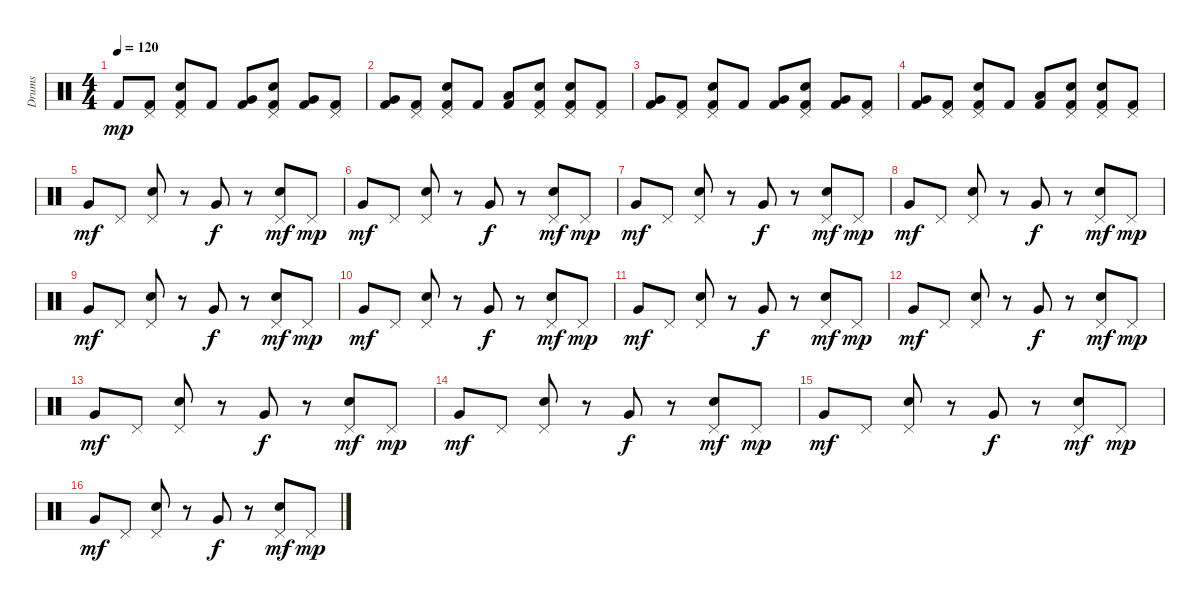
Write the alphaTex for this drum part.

\track ("Drums" "Drums") {instrument percussion}
\staff {score}
\articulation defaults
\ts (4 4)
\tempo 120
\clef neutral
\ks c "Kick (hit) 2".8{dy mp volume 13}
("Pedal Hi-Hat (hit)" "Kick (hit) 2").8 ("Pedal Hi-Hat (hit)" "Electric Snare (hit)" "Kick (hit) 2").8 "Kick (hit) 2".8 ("Very Low Tom (hit)" "Kick (hit) 2").8 ("Pedal Hi-Hat (hit)" "Electric Snare (hit)" "Kick (hit) 2").8 ("Very Low Tom (hit)" "Kick (hit) 2").8 ("Pedal Hi-Hat (hit)" "Kick (hit) 2").8 |
("Very Low Tom (hit)" "Kick (hit) 2").8 ("Pedal Hi-Hat (hit)" "Kick (hit) 2").8 ("Pedal Hi-Hat (hit)" "Electric Snare (hit)" "Kick (hit) 2").8 "Kick (hit) 2".8 ("Low Tom (hit)" "Kick (hit) 2").8 ("Pedal Hi-Hat (hit)" "Electric Snare (hit)" "Kick (hit) 2").8 ("Pedal Hi-Hat (hit)" "Electric Snare (hit)" "Kick (hit) 2").8 ("Pedal Hi-Hat (hit)" "Kick (hit) 2").8 |
("Very Low Tom (hit)" "Kick (hit) 2").8 ("Pedal Hi-Hat (hit)" "Kick (hit) 2").8 ("Pedal Hi-Hat (hit)" "Electric Snare (hit)" "Kick (hit) 2").8 "Kick (hit) 2".8 ("Very Low Tom (hit)" "Kick (hit) 2").8 ("Pedal Hi-Hat (hit)" "Electric Snare (hit)" "Kick (hit) 2").8 ("Very Low Tom (hit)" "Kick (hit) 2").8 ("Pedal Hi-Hat (hit)" "Kick (hit) 2").8 |
("Very Low Tom (hit)" "Kick (hit) 2").8 ("Pedal Hi-Hat (hit)" "Kick (hit) 2").8 ("Pedal Hi-Hat (hit)" "Electric Snare (hit)" "Kick (hit) 2").8 "Kick (hit) 2".8 ("Low Tom (hit)" "Kick (hit) 2").8 ("Pedal Hi-Hat (hit)" "Electric Snare (hit)" "Kick (hit) 2").8 ("Pedal Hi-Hat (hit)" "Electric Snare (hit)" "Kick (hit) 2").8 ("Pedal Hi-Hat (hit)" "Kick (hit) 2").8 |
"Very Low Tom (hit)".8{dy mf} "Pedal Hi-Hat (hit)".8 ("Pedal Hi-Hat (hit)" "Electric Snare (hit)").8 r.8 "Very Low Tom (hit)".8{dy f} r.8 ("Pedal Hi-Hat (hit)" "Electric Snare (hit)").8{dy mf} "Pedal Hi-Hat (hit)".8{dy mp} |
"Very Low Tom (hit)".8{dy mf} "Pedal Hi-Hat (hit)".8 ("Pedal Hi-Hat (hit)" "Electric Snare (hit)").8 r.8 "Very Low Tom (hit)".8{dy f} r.8 ("Pedal Hi-Hat (hit)" "Electric Snare (hit)").8{dy mf} "Pedal Hi-Hat (hit)".8{dy mp} |
"Very Low Tom (hit)".8{dy mf} "Pedal Hi-Hat (hit)".8 ("Pedal Hi-Hat (hit)" "Electric Snare (hit)").8 r.8 "Very Low Tom (hit)".8{dy f} r.8 ("Pedal Hi-Hat (hit)" "Electric Snare (hit)").8{dy mf} "Pedal Hi-Hat (hit)".8{dy mp} |
"Very Low Tom (hit)".8{dy mf} "Pedal Hi-Hat (hit)".8 ("Pedal Hi-Hat (hit)" "Electric Snare (hit)").8 r.8 "Very Low Tom (hit)".8{dy f} r.8 ("Pedal Hi-Hat (hit)" "Electric Snare (hit)").8{dy mf} "Pedal Hi-Hat (hit)".8{dy mp} |
"Very Low Tom (hit)".8{dy mf} "Pedal Hi-Hat (hit)".8 ("Pedal Hi-Hat (hit)" "Electric Snare (hit)").8 r.8 "Very Low Tom (hit)".8{dy f} r.8 ("Pedal Hi-Hat (hit)" "Electric Snare (hit)").8{dy mf} "Pedal Hi-Hat (hit)".8{dy mp} |
"Very Low Tom (hit)".8{dy mf} "Pedal Hi-Hat (hit)".8 ("Pedal Hi-Hat (hit)" "Electric Snare (hit)").8 r.8 "Very Low Tom (hit)".8{dy f} r.8 ("Pedal Hi-Hat (hit)" "Electric Snare (hit)").8{dy mf} "Pedal Hi-Hat (hit)".8{dy mp} |
"Very Low Tom (hit)".8{dy mf} "Pedal Hi-Hat (hit)".8 ("Pedal Hi-Hat (hit)" "Electric Snare (hit)").8 r.8 "Very Low Tom (hit)".8{dy f} r.8 ("Pedal Hi-Hat (hit)" "Electric Snare (hit)").8{dy mf} "Pedal Hi-Hat (hit)".8{dy mp} |
"Very Low Tom (hit)".8{dy mf} "Pedal Hi-Hat (hit)".8 ("Pedal Hi-Hat (hit)" "Electric Snare (hit)").8 r.8 "Very Low Tom (hit)".8{dy f} r.8 ("Pedal Hi-Hat (hit)" "Electric Snare (hit)").8{dy mf} "Pedal Hi-Hat (hit)".8{dy mp} |
"Very Low Tom (hit)".8{dy mf} "Pedal Hi-Hat (hit)".8 ("Pedal Hi-Hat (hit)" "Electric Snare (hit)").8 r.8 "Very Low Tom (hit)".8{dy f} r.8 ("Pedal Hi-Hat (hit)" "Electric Snare (hit)").8{dy mf} "Pedal Hi-Hat (hit)".8{dy mp} |
"Very Low Tom (hit)".8{dy mf} "Pedal Hi-Hat (hit)".8 ("Pedal Hi-Hat (hit)" "Electric Snare (hit)").8 r.8 "Very Low Tom (hit)".8{dy f} r.8 ("Pedal Hi-Hat (hit)" "Electric Snare (hit)").8{dy mf} "Pedal Hi-Hat (hit)".8{dy mp} |
"Very Low Tom (hit)".8{dy mf} "Pedal Hi-Hat (hit)".8 ("Pedal Hi-Hat (hit)" "Electric Snare (hit)").8 r.8 "Very Low Tom (hit)".8{dy f} r.8 ("Pedal Hi-Hat (hit)" "Electric Snare (hit)").8{dy mf} "Pedal Hi-Hat (hit)".8{dy mp} |
"Very Low Tom (hit)".8{dy mf} "Pedal Hi-Hat (hit)".8 ("Pedal Hi-Hat (hit)" "Electric Snare (hit)").8 r.8 "Very Low Tom (hit)".8{dy f} r.8 ("Pedal Hi-Hat (hit)" "Electric Snare (hit)").8{dy mf} "Pedal Hi-Hat (hit)".8{dy mp}
